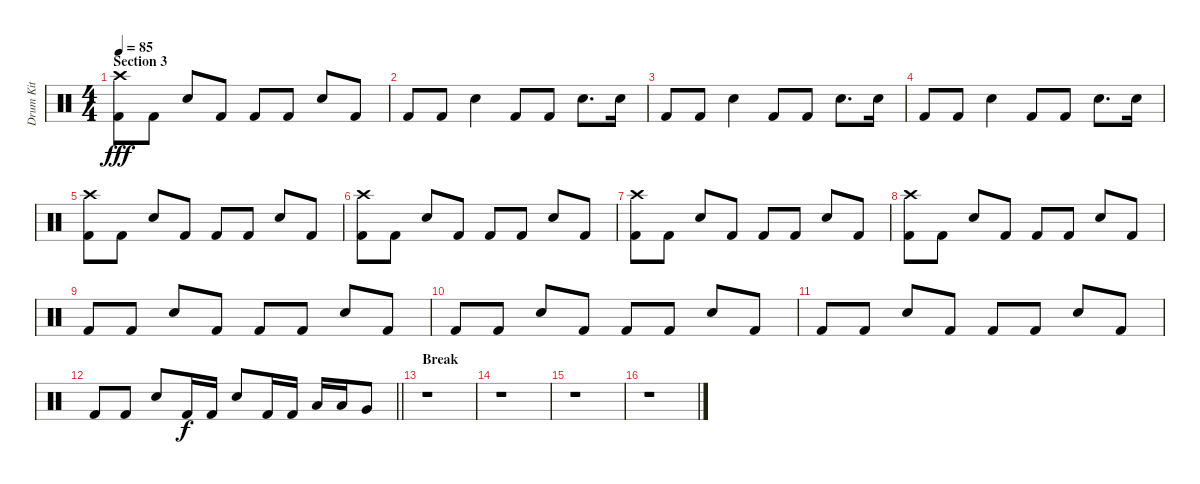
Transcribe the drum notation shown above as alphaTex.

\track ("Drum Kit" "Drum Kit") {instrument percussion}
\staff {score}
\articulation defaults
\ts (4 4)
\section ("" "Section 3")
\tempo 85
\clef neutral
\ks c
("Crash high (hit)" "Kick (hit) 2").8{dy fff} "Kick (hit) 2".8 "Snare (hit) 2".8 "Kick (hit) 2".8 "Kick (hit) 2".8 "Kick (hit) 2".8 "Snare (hit) 2".8 "Kick (hit) 2".8 |
"Kick (hit) 2".8 "Kick (hit) 2".8 "Snare (hit) 2".4 "Kick (hit) 2".8 "Kick (hit) 2".8 "Snare (hit) 2".8{d} "Snare (hit) 2".16 |
"Kick (hit) 2".8 "Kick (hit) 2".8 "Snare (hit) 2".4 "Kick (hit) 2".8 "Kick (hit) 2".8 "Snare (hit) 2".8{d} "Snare (hit) 2".16 |
"Kick (hit) 2".8 "Kick (hit) 2".8 "Snare (hit) 2".4 "Kick (hit) 2".8 "Kick (hit) 2".8 "Snare (hit) 2".8{d} "Snare (hit) 2".16 |
("Crash high (hit)" "Kick (hit) 2").8 "Kick (hit) 2".8 "Snare (hit) 2".8 "Kick (hit) 2".8 "Kick (hit) 2".8 "Kick (hit) 2".8 "Snare (hit) 2".8 "Kick (hit) 2".8 |
("Crash high (hit)" "Kick (hit) 2").8 "Kick (hit) 2".8 "Snare (hit) 2".8 "Kick (hit) 2".8 "Kick (hit) 2".8 "Kick (hit) 2".8 "Snare (hit) 2".8 "Kick (hit) 2".8 |
("Crash high (hit)" "Kick (hit) 2").8 "Kick (hit) 2".8 "Snare (hit) 2".8 "Kick (hit) 2".8 "Kick (hit) 2".8 "Kick (hit) 2".8 "Snare (hit) 2".8 "Kick (hit) 2".8 |
("Crash high (hit)" "Kick (hit) 2").8 "Kick (hit) 2".8 "Snare (hit) 2".8 "Kick (hit) 2".8 "Kick (hit) 2".8 "Kick (hit) 2".8 "Snare (hit) 2".8 "Kick (hit) 2".8 |
"Kick (hit) 2".8 "Kick (hit) 2".8 "Snare (hit) 2".8 "Kick (hit) 2".8 "Kick (hit) 2".8 "Kick (hit) 2".8 "Snare (hit) 2".8 "Kick (hit) 2".8 |
"Kick (hit) 2".8 "Kick (hit) 2".8 "Snare (hit) 2".8 "Kick (hit) 2".8 "Kick (hit) 2".8 "Kick (hit) 2".8 "Snare (hit) 2".8 "Kick (hit) 2".8 |
"Kick (hit) 2".8 "Kick (hit) 2".8 "Snare (hit) 2".8 "Kick (hit) 2".8 "Kick (hit) 2".8 "Kick (hit) 2".8 "Snare (hit) 2".8 "Kick (hit) 2".8 |
\barLineRight lightlight "Kick (hit) 2".8 "Kick (hit) 2".8 "Snare (hit) 2".8 "Kick (hit) 2".16{dy f} "Kick (hit) 2".16 "Snare (hit) 2".8 "Kick (hit) 2".16 "Kick (hit) 2".16 "Low Tom (hit)".16 "Low Tom (hit)".16 "Very Low Tom (hit)".8
|
\section ("" "Break")
r.1 |
r.1 |
r.1 |
r.1
